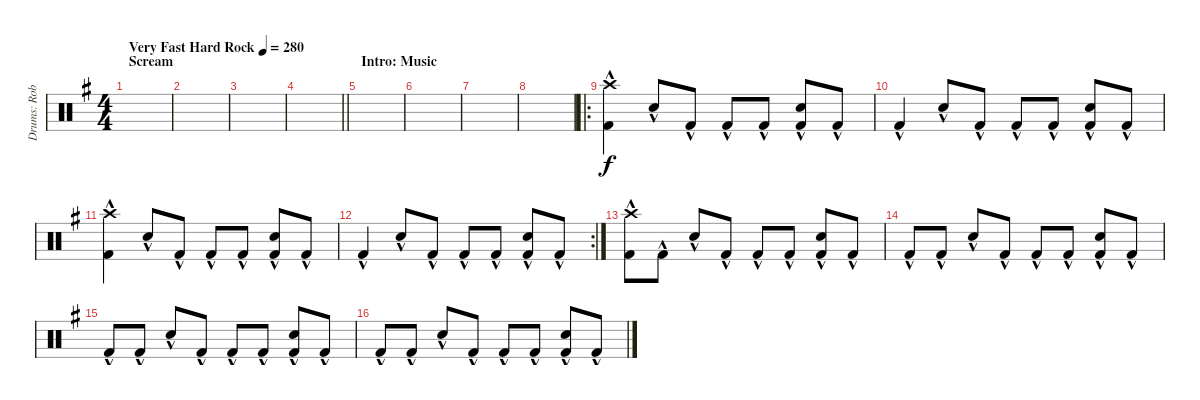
\track ("Drums: Rob" "Drums: Rob") {instrument percussion}
\staff {score}
\articulation defaults
\ts (4 4)
\section ("" "Scream")
\tempo (280 "Very Fast Hard Rock")
\clef neutral
\ks g
|
|
|
\barLineRight lightlight
|
\section ("" "Intro: Music")
|
|
|
|
\ro
("Crash high (hit)"{hac} "Kick (hit) 2"{hac}).4 "Snare (hit) 2"{hac}.8 "Kick (hit) 2"{hac}.8 "Kick (hit) 2"{hac}.8 "Kick (hit) 2"{hac}.8 ("Snare (hit) 2"{hac} "Kick (hit) 2"{hac}).8 "Kick (hit) 2"{hac}.8 |
"Kick (hit) 2"{hac}.4 "Snare (hit) 2"{hac}.8 "Kick (hit) 2"{hac}.8 "Kick (hit) 2"{hac}.8 "Kick (hit) 2"{hac}.8 ("Snare (hit) 2"{hac} "Kick (hit) 2"{hac}).8 "Kick (hit) 2"{hac}.8 |
("Crash high (hit)"{hac} "Kick (hit) 2"{hac}).4 "Snare (hit) 2"{hac}.8 "Kick (hit) 2"{hac}.8 "Kick (hit) 2"{hac}.8 "Kick (hit) 2"{hac}.8 ("Snare (hit) 2"{hac} "Kick (hit) 2"{hac}).8 "Kick (hit) 2"{hac}.8 |
\rc 2 "Kick (hit) 2"{hac}.4 "Snare (hit) 2"{hac}.8 "Kick (hit) 2"{hac}.8 "Kick (hit) 2"{hac}.8 "Kick (hit) 2"{hac}.8
("Snare (hit) 2"{hac} "Kick (hit) 2"{hac}).8 "Kick (hit) 2"{hac}.8 |
("Crash high (hit)"{hac} "Kick (hit) 2"{hac}).8 "Kick (hit) 2"{hac}.8 "Snare (hit) 2"{hac}.8 "Kick (hit) 2"{hac}.8 "Kick (hit) 2"{hac}.8 "Kick (hit) 2"{hac}.8 ("Snare (hit) 2"{hac} "Kick (hit) 2"{hac}).8 "Kick (hit) 2"{hac}.8 |
"Kick (hit) 2"{hac}.8 "Kick (hit) 2"{hac}.8 "Snare (hit) 2"{hac}.8 "Kick (hit) 2"{hac}.8 "Kick (hit) 2"{hac}.8 "Kick (hit) 2"{hac}.8 ("Snare (hit) 2"{hac} "Kick (hit) 2"{hac}).8 "Kick (hit) 2"{hac}.8 |
"Kick (hit) 2"{hac}.8 "Kick (hit) 2"{hac}.8 "Snare (hit) 2"{hac}.8 "Kick (hit) 2"{hac}.8 "Kick (hit) 2"{hac}.8 "Kick (hit) 2"{hac}.8 ("Snare (hit) 2"{hac} "Kick (hit) 2"{hac}).8 "Kick (hit) 2"{hac}.8 |
"Kick (hit) 2"{hac}.8 "Kick (hit) 2"{hac}.8 "Snare (hit) 2"{hac}.8 "Kick (hit) 2"{hac}.8 "Kick (hit) 2"{hac}.8 "Kick (hit) 2"{hac}.8 ("Snare (hit) 2"{hac} "Kick (hit) 2"{hac}).8 "Kick (hit) 2"{hac}.8
